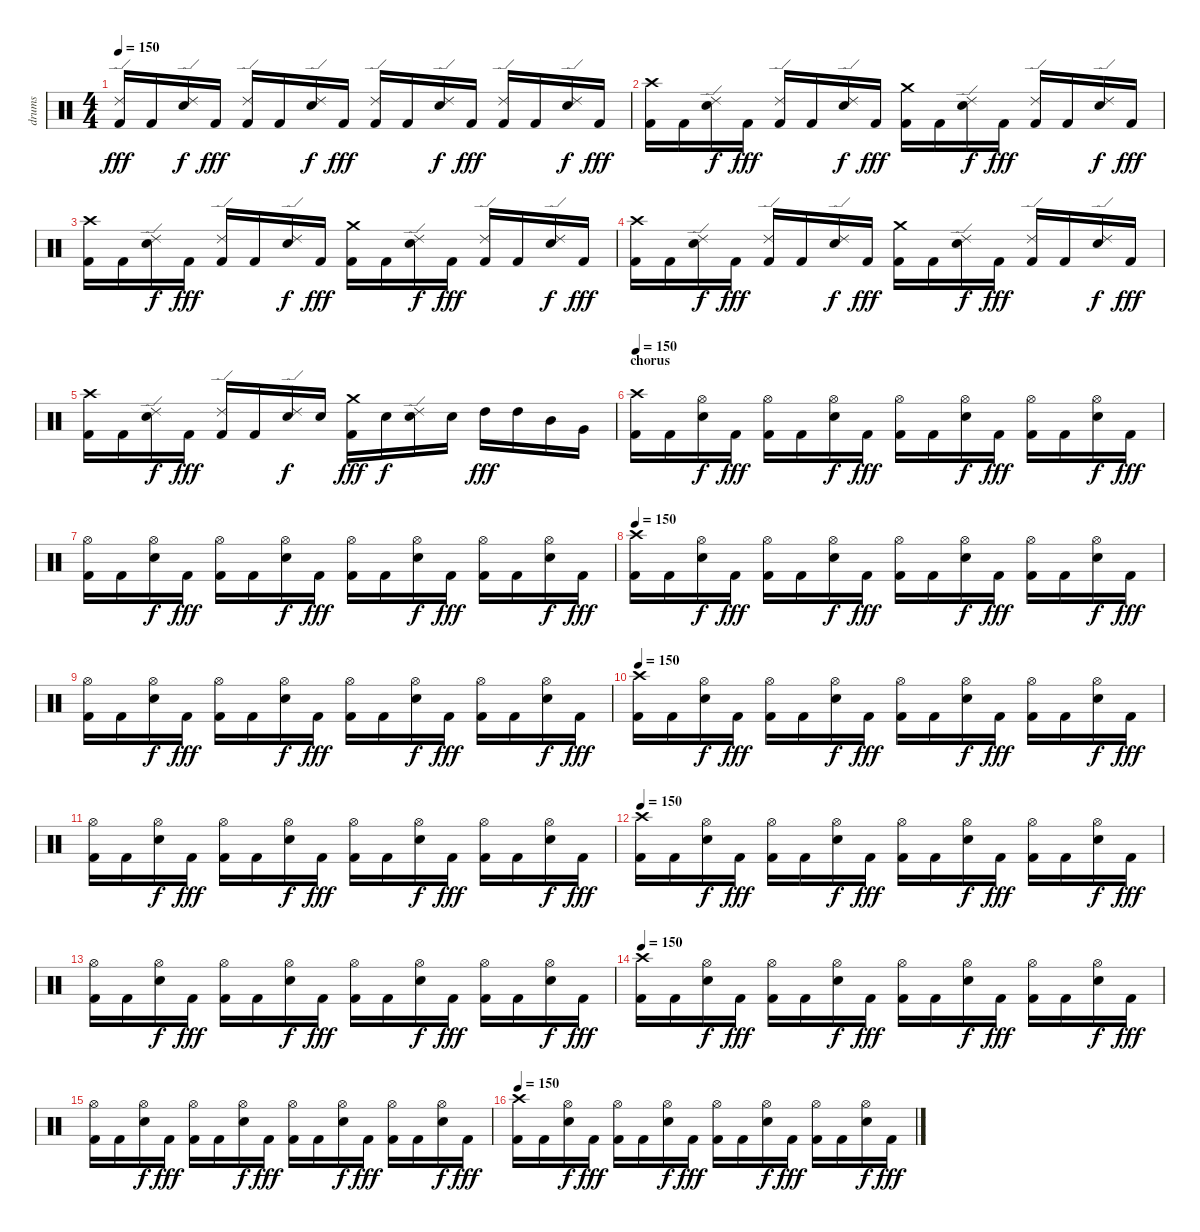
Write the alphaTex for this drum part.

\track ("drums" "drums") {instrument percussion}
\staff {score}
\articulation defaults
\ts (4 4)
\tempo 150
\clef neutral
\ks c
("Ride (edge) 2" "Kick (hit) 2").16{dy fff} "Kick (hit) 2".16 ("Ride (edge) 2" "Snare (hit) 2").16{dy f} "Kick (hit) 2".16{dy fff} ("Ride (edge) 2" "Kick (hit) 2").16 "Kick (hit) 2".16 ("Ride (edge) 2" "Snare (hit) 2").16{dy f} "Kick (hit) 2".16{dy fff} ("Ride (edge) 2" "Kick (hit) 2").16 "Kick (hit) 2".16 ("Ride (edge) 2" "Snare (hit) 2").16{dy f} "Kick (hit) 2".16{dy fff} ("Ride (edge) 2" "Kick (hit) 2").16 "Kick (hit) 2".16 ("Ride (edge) 2" "Snare (hit) 2").16{dy f} "Kick (hit) 2".16{dy fff} |
("Crash high (hit)" "Kick (hit) 2").16 "Kick (hit) 2".16 ("Ride (edge) 2" "Snare (hit) 2").16{dy f} "Kick (hit) 2".16{dy fff} ("Ride (edge) 2" "Kick (hit) 2").16 "Kick (hit) 2".16 ("Ride (edge) 2" "Snare (hit) 2").16{dy f} "Kick (hit) 2".16{dy fff} ("Crash medium (hit)" "Kick (hit) 2").16 "Kick (hit) 2".16 ("Ride (edge) 2" "Snare (hit) 2").16{dy f} "Kick (hit) 2".16{dy fff} ("Ride (edge) 2" "Kick (hit) 2").16 "Kick (hit) 2".16 ("Ride (edge) 2" "Snare (hit) 2").16{dy f} "Kick (hit) 2".16{dy fff} |
("Crash high (hit)" "Kick (hit) 2").16 "Kick (hit) 2".16 ("Ride (edge) 2" "Snare (hit) 2").16{dy f} "Kick (hit) 2".16{dy fff} ("Ride (edge) 2" "Kick (hit) 2").16 "Kick (hit) 2".16 ("Ride (edge) 2" "Snare (hit) 2").16{dy f} "Kick (hit) 2".16{dy fff} ("Crash medium (hit)" "Kick (hit) 2").16 "Kick (hit) 2".16 ("Ride (edge) 2" "Snare (hit) 2").16{dy f} "Kick (hit) 2".16{dy fff} ("Ride (edge) 2" "Kick (hit) 2").16 "Kick (hit) 2".16 ("Ride (edge) 2" "Snare (hit) 2").16{dy f} "Kick (hit) 2".16{dy fff} |
("Crash high (hit)" "Kick (hit) 2").16 "Kick (hit) 2".16 ("Ride (edge) 2" "Snare (hit) 2").16{dy f} "Kick (hit) 2".16{dy fff} ("Ride (edge) 2" "Kick (hit) 2").16 "Kick (hit) 2".16 ("Ride (edge) 2" "Snare (hit) 2").16{dy f} "Kick (hit) 2".16{dy fff} ("Crash medium (hit)" "Kick (hit) 2").16 "Kick (hit) 2".16 ("Ride (edge) 2" "Snare (hit) 2").16{dy f} "Kick (hit) 2".16{dy fff} ("Ride (edge) 2" "Kick (hit) 2").16 "Kick (hit) 2".16 ("Ride (edge) 2" "Snare (hit) 2").16{dy f} "Kick (hit) 2".16{dy fff} |
("Crash high (hit)" "Kick (hit) 2").16 "Kick (hit) 2".16 ("Ride (edge) 2" "Snare (hit) 2").16{dy f} "Kick (hit) 2".16{dy fff} ("Ride (edge) 2" "Kick (hit) 2").16 "Kick (hit) 2".16 ("Ride (edge) 2" "Snare (hit) 2").16{dy f} "Snare (hit) 2".16 ("Crash medium (hit)" "Kick (hit) 2").16{dy fff} "Snare (hit) 2".16{dy f} ("Ride (edge) 2" "Snare (hit) 2").16 "Snare (hit) 2".16 "High Tom (hit)".16{dy fff} "High Tom (hit)".16 "Mid Tom (hit)".16 "Very Low Tom (hit)".16 |
\section ("" "chorus")
\tempo 150
("Crash high (hit)" "Kick (hit) 2").16 "Kick (hit) 2".16 ("Hi-Hat (open)" "Snare (hit) 2").16{dy f} "Kick (hit) 2".16{dy fff} ("Hi-Hat (open)" "Kick (hit) 2").16 "Kick (hit) 2".16 ("Hi-Hat (open)" "Snare (hit) 2").16{dy f} "Kick (hit) 2".16{dy fff} ("Hi-Hat (open)" "Kick (hit) 2").16 "Kick (hit) 2".16 ("Hi-Hat (open)" "Snare (hit) 2").16{dy f} "Kick (hit) 2".16{dy fff} ("Hi-Hat (open)" "Kick (hit) 2").16 "Kick (hit) 2".16 ("Hi-Hat (open)" "Snare (hit) 2").16{dy f} "Kick (hit) 2".16{dy fff} |
("Hi-Hat (open)" "Kick (hit) 2").16 "Kick (hit) 2".16 ("Hi-Hat (open)" "Snare (hit) 2").16{dy f} "Kick (hit) 2".16{dy fff} ("Hi-Hat (open)" "Kick (hit) 2").16 "Kick (hit) 2".16 ("Hi-Hat (open)" "Snare (hit) 2").16{dy f} "Kick (hit) 2".16{dy fff} ("Hi-Hat (open)" "Kick (hit) 2").16 "Kick (hit) 2".16 ("Hi-Hat (open)" "Snare (hit) 2").16{dy f} "Kick (hit) 2".16{dy fff} ("Hi-Hat (open)" "Kick (hit) 2").16 "Kick (hit) 2".16 ("Hi-Hat (open)" "Snare (hit) 2").16{dy f} "Kick (hit) 2".16{dy fff} |
\tempo 150
("Crash high (hit)" "Kick (hit) 2").16 "Kick (hit) 2".16 ("Hi-Hat (open)" "Snare (hit) 2").16{dy f} "Kick (hit) 2".16{dy fff} ("Hi-Hat (open)" "Kick (hit) 2").16 "Kick (hit) 2".16 ("Hi-Hat (open)" "Snare (hit) 2").16{dy f} "Kick (hit) 2".16{dy fff} ("Hi-Hat (open)" "Kick (hit) 2").16 "Kick (hit) 2".16 ("Hi-Hat (open)" "Snare (hit) 2").16{dy f} "Kick (hit) 2".16{dy fff} ("Hi-Hat (open)" "Kick (hit) 2").16 "Kick (hit) 2".16 ("Hi-Hat (open)" "Snare (hit) 2").16{dy f} "Kick (hit) 2".16{dy fff} |
("Hi-Hat (open)" "Kick (hit) 2").16 "Kick (hit) 2".16 ("Hi-Hat (open)" "Snare (hit) 2").16{dy f} "Kick (hit) 2".16{dy fff} ("Hi-Hat (open)" "Kick (hit) 2").16 "Kick (hit) 2".16 ("Hi-Hat (open)" "Snare (hit) 2").16{dy f} "Kick (hit) 2".16{dy fff} ("Hi-Hat (open)" "Kick (hit) 2").16 "Kick (hit) 2".16 ("Hi-Hat (open)" "Snare (hit) 2").16{dy f} "Kick (hit) 2".16{dy fff} ("Hi-Hat (open)" "Kick (hit) 2").16 "Kick (hit) 2".16 ("Hi-Hat (open)" "Snare (hit) 2").16{dy f} "Kick (hit) 2".16{dy fff} |
\tempo 150
("Crash high (hit)" "Kick (hit) 2").16 "Kick (hit) 2".16 ("Hi-Hat (open)" "Snare (hit) 2").16{dy f} "Kick (hit) 2".16{dy fff} ("Hi-Hat (open)" "Kick (hit) 2").16 "Kick (hit) 2".16 ("Hi-Hat (open)" "Snare (hit) 2").16{dy f} "Kick (hit) 2".16{dy fff} ("Hi-Hat (open)" "Kick (hit) 2").16 "Kick (hit) 2".16 ("Hi-Hat (open)" "Snare (hit) 2").16{dy f} "Kick (hit) 2".16{dy fff} ("Hi-Hat (open)" "Kick (hit) 2").16 "Kick (hit) 2".16 ("Hi-Hat (open)" "Snare (hit) 2").16{dy f} "Kick (hit) 2".16{dy fff} |
("Hi-Hat (open)" "Kick (hit) 2").16 "Kick (hit) 2".16 ("Hi-Hat (open)" "Snare (hit) 2").16{dy f} "Kick (hit) 2".16{dy fff} ("Hi-Hat (open)" "Kick (hit) 2").16 "Kick (hit) 2".16 ("Hi-Hat (open)" "Snare (hit) 2").16{dy f} "Kick (hit) 2".16{dy fff} ("Hi-Hat (open)" "Kick (hit) 2").16 "Kick (hit) 2".16 ("Hi-Hat (open)" "Snare (hit) 2").16{dy f} "Kick (hit) 2".16{dy fff} ("Hi-Hat (open)" "Kick (hit) 2").16 "Kick (hit) 2".16 ("Hi-Hat (open)" "Snare (hit) 2").16{dy f} "Kick (hit) 2".16{dy fff} |
\tempo 150
("Crash high (hit)" "Kick (hit) 2").16 "Kick (hit) 2".16 ("Hi-Hat (open)" "Snare (hit) 2").16{dy f} "Kick (hit) 2".16{dy fff} ("Hi-Hat (open)" "Kick (hit) 2").16 "Kick (hit) 2".16 ("Hi-Hat (open)" "Snare (hit) 2").16{dy f} "Kick (hit) 2".16{dy fff} ("Hi-Hat (open)" "Kick (hit) 2").16 "Kick (hit) 2".16 ("Hi-Hat (open)" "Snare (hit) 2").16{dy f} "Kick (hit) 2".16{dy fff} ("Hi-Hat (open)" "Kick (hit) 2").16 "Kick (hit) 2".16 ("Hi-Hat (open)" "Snare (hit) 2").16{dy f} "Kick (hit) 2".16{dy fff} |
("Hi-Hat (open)" "Kick (hit) 2").16 "Kick (hit) 2".16 ("Hi-Hat (open)" "Snare (hit) 2").16{dy f} "Kick (hit) 2".16{dy fff} ("Hi-Hat (open)" "Kick (hit) 2").16 "Kick (hit) 2".16 ("Hi-Hat (open)" "Snare (hit) 2").16{dy f} "Kick (hit) 2".16{dy fff} ("Hi-Hat (open)" "Kick (hit) 2").16 "Kick (hit) 2".16 ("Hi-Hat (open)" "Snare (hit) 2").16{dy f} "Kick (hit) 2".16{dy fff} ("Hi-Hat (open)" "Kick (hit) 2").16 "Kick (hit) 2".16 ("Hi-Hat (open)" "Snare (hit) 2").16{dy f} "Kick (hit) 2".16{dy fff} |
\tempo 150
("Crash high (hit)" "Kick (hit) 2").16 "Kick (hit) 2".16 ("Hi-Hat (open)" "Snare (hit) 2").16{dy f} "Kick (hit) 2".16{dy fff} ("Hi-Hat (open)" "Kick (hit) 2").16 "Kick (hit) 2".16 ("Hi-Hat (open)" "Snare (hit) 2").16{dy f} "Kick (hit) 2".16{dy fff} ("Hi-Hat (open)" "Kick (hit) 2").16 "Kick (hit) 2".16 ("Hi-Hat (open)" "Snare (hit) 2").16{dy f} "Kick (hit) 2".16{dy fff} ("Hi-Hat (open)" "Kick (hit) 2").16 "Kick (hit) 2".16 ("Hi-Hat (open)" "Snare (hit) 2").16{dy f} "Kick (hit) 2".16{dy fff} |
("Hi-Hat (open)" "Kick (hit) 2").16 "Kick (hit) 2".16 ("Hi-Hat (open)" "Snare (hit) 2").16{dy f} "Kick (hit) 2".16{dy fff} ("Hi-Hat (open)" "Kick (hit) 2").16 "Kick (hit) 2".16 ("Hi-Hat (open)" "Snare (hit) 2").16{dy f} "Kick (hit) 2".16{dy fff} ("Hi-Hat (open)" "Kick (hit) 2").16 "Kick (hit) 2".16 ("Hi-Hat (open)" "Snare (hit) 2").16{dy f} "Kick (hit) 2".16{dy fff} ("Hi-Hat (open)" "Kick (hit) 2").16 "Kick (hit) 2".16 ("Hi-Hat (open)" "Snare (hit) 2").16{dy f} "Kick (hit) 2".16{dy fff} |
\tempo 150
("Crash high (hit)" "Kick (hit) 2").16 "Kick (hit) 2".16 ("Hi-Hat (open)" "Snare (hit) 2").16{dy f} "Kick (hit) 2".16{dy fff} ("Hi-Hat (open)" "Kick (hit) 2").16 "Kick (hit) 2".16 ("Hi-Hat (open)" "Snare (hit) 2").16{dy f} "Kick (hit) 2".16{dy fff} ("Hi-Hat (open)" "Kick (hit) 2").16 "Kick (hit) 2".16 ("Hi-Hat (open)" "Snare (hit) 2").16{dy f} "Kick (hit) 2".16{dy fff} ("Hi-Hat (open)" "Kick (hit) 2").16 "Kick (hit) 2".16 ("Hi-Hat (open)" "Snare (hit) 2").16{dy f} "Kick (hit) 2".16{dy fff}
